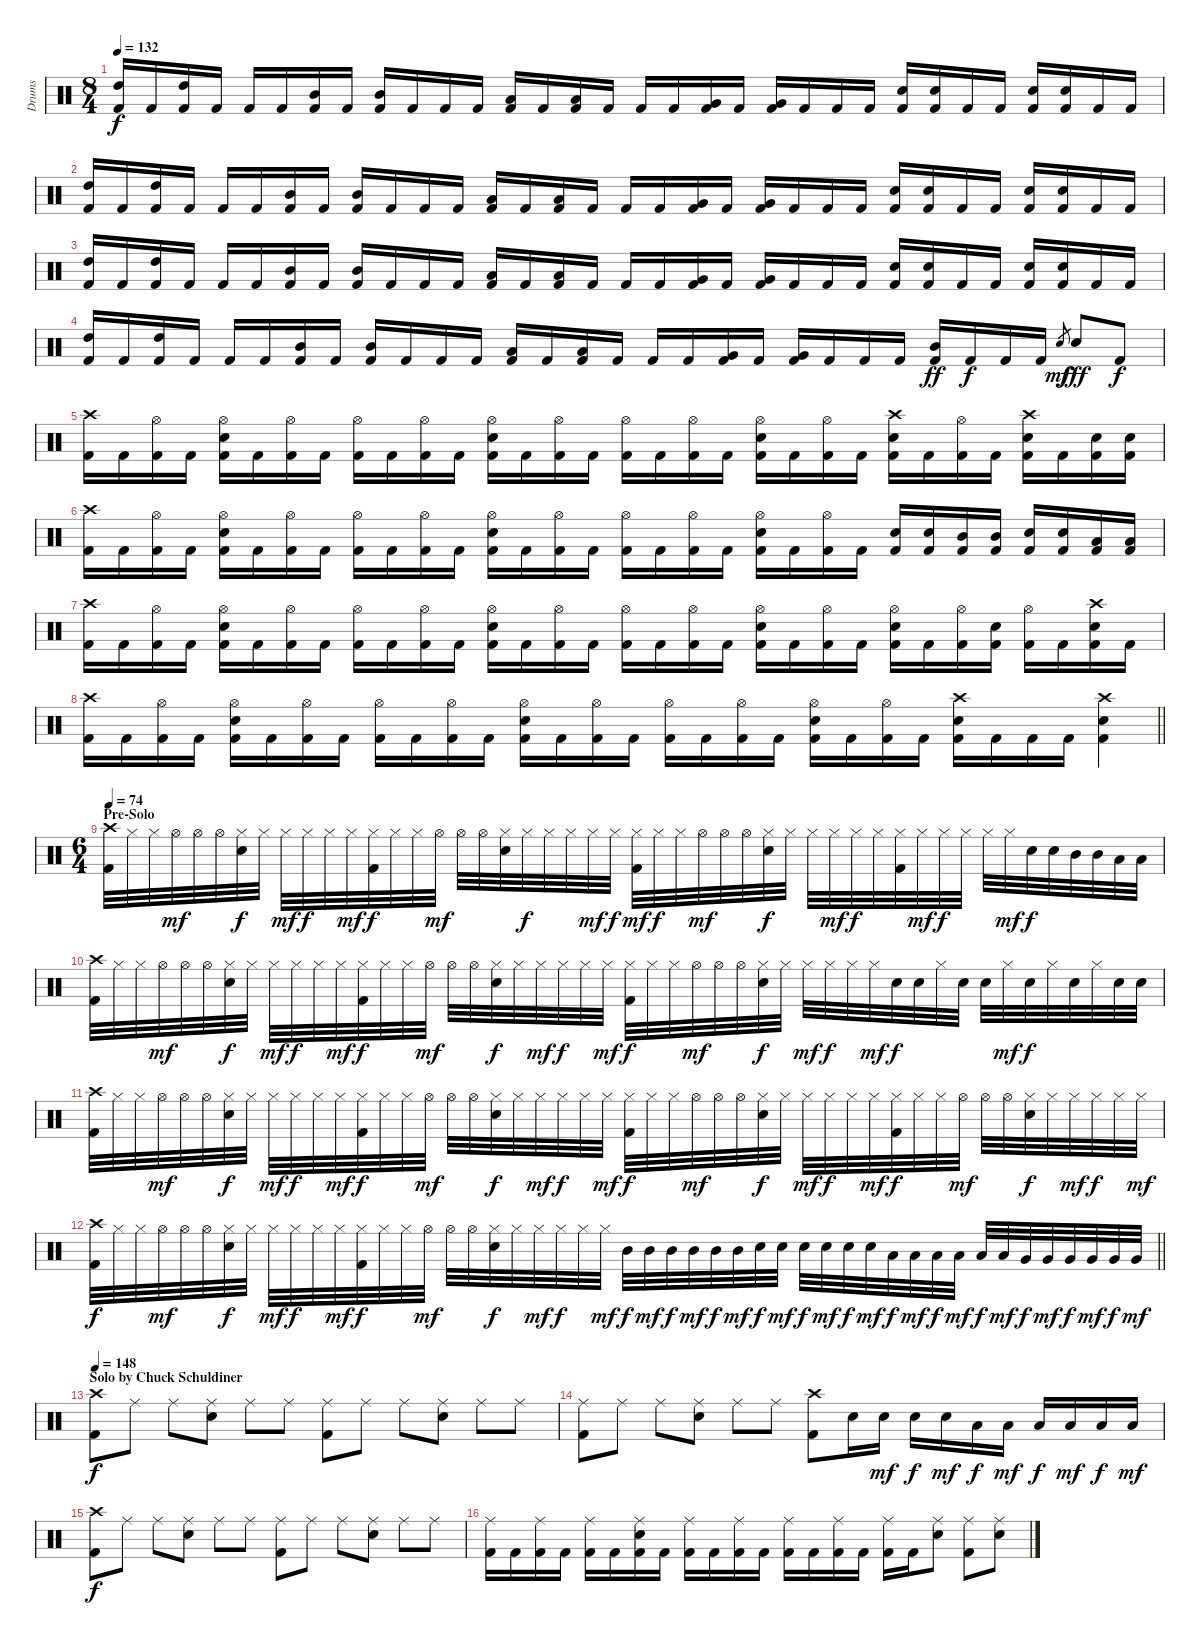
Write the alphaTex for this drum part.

\track ("Drums" "Drums") {instrument percussion}
\staff {score}
\articulation defaults
\ts (8 4)
\tempo 132
\clef neutral
\ks c
("High Tom (hit)" "Kick (hit) 2").16{dy f} "Kick (hit) 2".16 ("High Tom (hit)" "Kick (hit) 2").16 "Kick (hit) 2".16 "Kick (hit) 2".16 "Kick (hit) 2".16 ("Mid Tom (hit)" "Kick (hit) 2").16 "Kick (hit) 2".16 ("Mid Tom (hit)" "Kick (hit) 2").16 "Kick (hit) 2".16 "Kick (hit) 2".16 "Kick (hit) 2".16 ("Low Tom (hit)" "Kick (hit) 2").16 "Kick (hit) 2".16 ("Low Tom (hit)" "Kick (hit) 2").16 "Kick (hit) 2".16 "Kick (hit) 2".16 "Kick (hit) 2".16 ("Very Low Tom (hit)" "Kick (hit) 2").16 "Kick (hit) 2".16 ("Very Low Tom (hit)" "Kick (hit) 2").16 "Kick (hit) 2".16 "Kick (hit) 2".16 "Kick (hit) 2".16 ("Snare (hit) 2" "Kick (hit) 2").16 ("Snare (hit) 2" "Kick (hit) 2").16 "Kick (hit) 2".16 "Kick (hit) 2".16 ("Snare (hit) 2" "Kick (hit) 2").16 ("Snare (hit) 2" "Kick (hit) 2").16 "Kick (hit) 2".16 "Kick (hit) 2".16 |
("High Tom (hit)" "Kick (hit) 2").16 "Kick (hit) 2".16 ("High Tom (hit)" "Kick (hit) 2").16 "Kick (hit) 2".16 "Kick (hit) 2".16 "Kick (hit) 2".16 ("Mid Tom (hit)" "Kick (hit) 2").16 "Kick (hit) 2".16 ("Mid Tom (hit)" "Kick (hit) 2").16 "Kick (hit) 2".16 "Kick (hit) 2".16 "Kick (hit) 2".16 ("Low Tom (hit)" "Kick (hit) 2").16 "Kick (hit) 2".16 ("Low Tom (hit)" "Kick (hit) 2").16 "Kick (hit) 2".16 "Kick (hit) 2".16 "Kick (hit) 2".16 ("Very Low Tom (hit)" "Kick (hit) 2").16 "Kick (hit) 2".16 ("Very Low Tom (hit)" "Kick (hit) 2").16 "Kick (hit) 2".16 "Kick (hit) 2".16 "Kick (hit) 2".16 ("Snare (hit) 2" "Kick (hit) 2").16 ("Snare (hit) 2" "Kick (hit) 2").16 "Kick (hit) 2".16 "Kick (hit) 2".16 ("Snare (hit) 2" "Kick (hit) 2").16 ("Snare (hit) 2" "Kick (hit) 2").16 "Kick (hit) 2".16 "Kick (hit) 2".16 |
("High Tom (hit)" "Kick (hit) 2").16 "Kick (hit) 2".16 ("High Tom (hit)" "Kick (hit) 2").16 "Kick (hit) 2".16 "Kick (hit) 2".16 "Kick (hit) 2".16 ("Mid Tom (hit)" "Kick (hit) 2").16 "Kick (hit) 2".16 ("Mid Tom (hit)" "Kick (hit) 2").16 "Kick (hit) 2".16 "Kick (hit) 2".16 "Kick (hit) 2".16 ("Low Tom (hit)" "Kick (hit) 2").16 "Kick (hit) 2".16 ("Low Tom (hit)" "Kick (hit) 2").16 "Kick (hit) 2".16 "Kick (hit) 2".16 "Kick (hit) 2".16 ("Very Low Tom (hit)" "Kick (hit) 2").16 "Kick (hit) 2".16 ("Very Low Tom (hit)" "Kick (hit) 2").16 "Kick (hit) 2".16 "Kick (hit) 2".16 "Kick (hit) 2".16 ("Snare (hit) 2" "Kick (hit) 2").16 ("Snare (hit) 2" "Kick (hit) 2").16 "Kick (hit) 2".16 "Kick (hit) 2".16 ("Snare (hit) 2" "Kick (hit) 2").16 ("Snare (hit) 2" "Kick (hit) 2").16 "Kick (hit) 2".16 "Kick (hit) 2".16 |
("High Tom (hit)" "Kick (hit) 2").16 "Kick (hit) 2".16 ("High Tom (hit)" "Kick (hit) 2").16 "Kick (hit) 2".16 "Kick (hit) 2".16 "Kick (hit) 2".16 ("Mid Tom (hit)" "Kick (hit) 2").16 "Kick (hit) 2".16 ("Mid Tom (hit)" "Kick (hit) 2").16 "Kick (hit) 2".16 "Kick (hit) 2".16 "Kick (hit) 2".16 ("Low Tom (hit)" "Kick (hit) 2").16 "Kick (hit) 2".16 ("Low Tom (hit)" "Kick (hit) 2").16 "Kick (hit) 2".16 "Kick (hit) 2".16 "Kick (hit) 2".16 ("Very Low Tom (hit)" "Kick (hit) 2").16 "Kick (hit) 2".16 ("Very Low Tom (hit)" "Kick (hit) 2").16 "Kick (hit) 2".16 "Kick (hit) 2".16 "Kick (hit) 2".16 ("Mid Tom (hit)" "Kick (hit) 2").16{dy ff} "Kick (hit) 2".16{dy f} "Kick (hit) 2".16 "Kick (hit) 2".16 "Snare (hit) 2".8{gr dy mf} "Snare (hit) 2".8{dy fff} "Kick (hit) 2".8{dy f} |
("Crash high (hit)" "Kick (hit) 2").16 "Kick (hit) 2".16 ("Hi-Hat (open)" "Kick (hit) 2").16 "Kick (hit) 2".16 ("Hi-Hat (open)" "Snare (hit) 2" "Kick (hit) 2").16 "Kick (hit) 2".16 ("Hi-Hat (open)" "Kick (hit) 2").16 "Kick (hit) 2".16 ("Hi-Hat (open)" "Kick (hit) 2").16 "Kick (hit) 2".16 ("Hi-Hat (open)" "Kick (hit) 2").16 "Kick (hit) 2".16 ("Hi-Hat (open)" "Snare (hit) 2" "Kick (hit) 2").16 "Kick (hit) 2".16 ("Hi-Hat (open)" "Kick (hit) 2").16 "Kick (hit) 2".16 ("Hi-Hat (open)" "Kick (hit) 2").16 "Kick (hit) 2".16 ("Hi-Hat (open)" "Kick (hit) 2").16 "Kick (hit) 2".16 ("Hi-Hat (open)" "Snare (hit) 2" "Kick (hit) 2").16 "Kick (hit) 2".16 ("Hi-Hat (open)" "Kick (hit) 2").16 "Kick (hit) 2".16 ("Crash high (hit)" "Snare (hit) 2" "Kick (hit) 2").16 "Kick (hit) 2".16 ("Hi-Hat (open)" "Kick (hit) 2").16 "Kick (hit) 2".16 ("Crash high (hit)" "Snare (hit) 2" "Kick (hit) 2").16 "Kick (hit) 2".16 ("Snare (hit) 2" "Kick (hit) 2").16 ("Snare (hit) 2" "Kick (hit) 2").16 |
("Crash high (hit)" "Kick (hit) 2").16 "Kick (hit) 2".16 ("Hi-Hat (open)" "Kick (hit) 2").16 "Kick (hit) 2".16 ("Hi-Hat (open)" "Snare (hit) 2" "Kick (hit) 2").16 "Kick (hit) 2".16 ("Hi-Hat (open)" "Kick (hit) 2").16 "Kick (hit) 2".16 ("Hi-Hat (open)" "Kick (hit) 2").16 "Kick (hit) 2".16 ("Hi-Hat (open)" "Kick (hit) 2").16 "Kick (hit) 2".16 ("Hi-Hat (open)" "Snare (hit) 2" "Kick (hit) 2").16 "Kick (hit) 2".16 ("Hi-Hat (open)" "Kick (hit) 2").16 "Kick (hit) 2".16 ("Hi-Hat (open)" "Kick (hit) 2").16 "Kick (hit) 2".16 ("Hi-Hat (open)" "Kick (hit) 2").16 "Kick (hit) 2".16 ("Hi-Hat (open)" "Snare (hit) 2" "Kick (hit) 2").16 "Kick (hit) 2".16 ("Hi-Hat (open)" "Kick (hit) 2").16 "Kick (hit) 2".16 ("Snare (hit) 2" "Kick (hit) 2").16 ("Snare (hit) 2" "Kick (hit) 2").16 ("Mid Tom (hit)" "Kick (hit) 2").16 ("Mid Tom (hit)" "Kick (hit) 2").16 ("Snare (hit) 2" "Kick (hit) 2").16 ("Snare (hit) 2" "Kick (hit) 2").16 ("Low Tom (hit)" "Kick (hit) 2").16 ("Low Tom (hit)" "Kick (hit) 2").16 |
("Crash high (hit)" "Kick (hit) 2").16 "Kick (hit) 2".16 ("Hi-Hat (open)" "Kick (hit) 2").16 "Kick (hit) 2".16 ("Hi-Hat (open)" "Snare (hit) 2" "Kick (hit) 2").16 "Kick (hit) 2".16 ("Hi-Hat (open)" "Kick (hit) 2").16 "Kick (hit) 2".16 ("Hi-Hat (open)" "Kick (hit) 2").16 "Kick (hit) 2".16 ("Hi-Hat (open)" "Kick (hit) 2").16 "Kick (hit) 2".16 ("Hi-Hat (open)" "Snare (hit) 2" "Kick (hit) 2").16 "Kick (hit) 2".16 ("Hi-Hat (open)" "Kick (hit) 2").16 "Kick (hit) 2".16 ("Hi-Hat (open)" "Kick (hit) 2").16 "Kick (hit) 2".16 ("Hi-Hat (open)" "Kick (hit) 2").16 "Kick (hit) 2".16 ("Hi-Hat (open)" "Snare (hit) 2" "Kick (hit) 2").16 "Kick (hit) 2".16 ("Hi-Hat (open)" "Kick (hit) 2").16 "Kick (hit) 2".16 ("Hi-Hat (open)" "Snare (hit) 2" "Kick (hit) 2").16 "Kick (hit) 2".16 ("Hi-Hat (open)" "Kick (hit) 2").16 ("Snare (hit) 2" "Kick (hit) 2").16 ("Hi-Hat (open)" "Kick (hit) 2").16 "Kick (hit) 2".16 ("Crash high (hit)" "Snare (hit) 2" "Kick (hit) 2").16 "Kick (hit) 2".16 |
\barLineRight lightlight
("Crash high (hit)" "Kick (hit) 2").16 "Kick (hit) 2".16 ("Hi-Hat (open)" "Kick (hit) 2").16 "Kick (hit) 2".16 ("Hi-Hat (open)" "Snare (hit) 2" "Kick (hit) 2").16 "Kick (hit) 2".16 ("Hi-Hat (open)" "Kick (hit) 2").16 "Kick (hit) 2".16 ("Hi-Hat (open)" "Kick (hit) 2").16 "Kick (hit) 2".16 ("Hi-Hat (open)" "Kick (hit) 2").16 "Kick (hit) 2".16 ("Hi-Hat (open)" "Snare (hit) 2" "Kick (hit) 2").16 "Kick (hit) 2".16 ("Hi-Hat (open)" "Kick (hit) 2").16 "Kick (hit) 2".16 ("Hi-Hat (open)" "Kick (hit) 2").16 "Kick (hit) 2".16 ("Hi-Hat (open)" "Kick (hit) 2").16 "Kick (hit) 2".16 ("Hi-Hat (open)" "Snare (hit) 2" "Kick (hit) 2").16 "Kick (hit) 2".16 ("Hi-Hat (open)" "Kick (hit) 2").16 "Kick (hit) 2".16 ("Crash high (hit)" "Snare (hit) 2" "Kick (hit) 2").16 "Kick (hit) 2".16 "Kick (hit) 2".16 "Kick (hit) 2".16 ("Crash high (hit)" "Snare (hit) 2" "Kick (hit) 2").4 |
\ts (6 4)
\section ("" "Pre-Solo")
\tempo 74
("Crash high (hit)" "Kick (hit) 2").32 "Hi-Hat (closed)".32 "Hi-Hat (closed)".32 "Hi-Hat (open)".32{dy mf} "Hi-Hat (open)".32 "Hi-Hat (open)".32 ("Hi-Hat (closed)" "Snare (hit) 2").32{dy f} "Hi-Hat (closed)".32 "Hi-Hat (closed)".32{dy mf} "Hi-Hat (closed)".32{dy f} "Hi-Hat (closed)".32 "Hi-Hat (closed)".32{dy mf} ("Hi-Hat (closed)" "Kick (hit) 2").32{dy f} "Hi-Hat (closed)".32 "Hi-Hat (closed)".32 "Hi-Hat (open)".32{dy mf} "Hi-Hat (open)".32 "Hi-Hat (open)".32 ("Hi-Hat (closed)" "Snare (hit) 2").32 "Hi-Hat (closed)".32{dy f} "Hi-Hat (closed)".32 "Hi-Hat (closed)".32 "Hi-Hat (closed)".32{dy mf} "Hi-Hat (closed)".32{dy f} ("Hi-Hat (closed)" "Kick (hit) 2").32{dy mf} "Hi-Hat (closed)".32{dy f} "Hi-Hat (closed)".32 "Hi-Hat (open)".32{dy mf} "Hi-Hat (open)".32 "Hi-Hat (open)".32 ("Hi-Hat (closed)" "Snare (hit) 2").32{dy f} "Hi-Hat (closed)".32 "Hi-Hat (closed)".32 "Hi-Hat (closed)".32{dy mf} "Hi-Hat (closed)".32{dy f} "Hi-Hat (closed)".32 ("Hi-Hat (closed)" "Kick (hit) 2").32 "Hi-Hat (closed)".32{dy mf} "Hi-Hat (closed)".32{dy f} "Hi-Hat (closed)".32 "Hi-Hat (closed)".32 "Hi-Hat (closed)".32{dy mf} "Snare (hit) 2".32{dy f} "Snare (hit) 2".32 "Mid Tom (hit)".32 "Mid Tom (hit)".32 "Low Tom (hit)".32 "Low Tom (hit)".32 |
("Crash high (hit)" "Kick (hit) 2").32 "Hi-Hat (closed)".32 "Hi-Hat (closed)".32 "Hi-Hat (open)".32{dy mf} "Hi-Hat (open)".32 "Hi-Hat (open)".32 ("Hi-Hat (closed)" "Snare (hit) 2").32{dy f} "Hi-Hat (closed)".32 "Hi-Hat (closed)".32{dy mf} "Hi-Hat (closed)".32{dy f} "Hi-Hat (closed)".32 "Hi-Hat (closed)".32{dy mf} ("Hi-Hat (closed)" "Kick (hit) 2").32{dy f} "Hi-Hat (closed)".32 "Hi-Hat (closed)".32 "Hi-Hat (open)".32{dy mf} "Hi-Hat (open)".32 "Hi-Hat (open)".32 ("Hi-Hat (closed)" "Snare (hit) 2").32{dy f} "Hi-Hat (closed)".32 "Hi-Hat (closed)".32{dy mf} "Hi-Hat (closed)".32{dy f} "Hi-Hat (closed)".32 "Hi-Hat (closed)".32{dy mf} ("Hi-Hat (closed)" "Kick (hit) 2").32{dy f} "Hi-Hat (closed)".32 "Hi-Hat (closed)".32 "Hi-Hat (open)".32{dy mf} "Hi-Hat (open)".32 "Hi-Hat (open)".32 ("Hi-Hat (closed)" "Snare (hit) 2").32{dy f} "Hi-Hat (closed)".32 "Hi-Hat (closed)".32{dy mf} "Hi-Hat (closed)".32{dy f} "Hi-Hat (closed)".32 "Hi-Hat (closed)".32{dy mf} "Snare (hit) 2".32{dy f} "Snare (hit) 2".32 "Hi-Hat (closed)".32 "Snare (hit) 2".32 "Snare (hit) 2".32 "Hi-Hat (closed)".32{dy mf} "Snare (hit) 2".32{dy f} "Hi-Hat (closed)".32 "Snare (hit) 2".32 "Hi-Hat (closed)".32 "Snare (hit) 2".32 "Snare (hit) 2".32 |
("Crash high (hit)" "Kick (hit) 2").32 "Hi-Hat (closed)".32 "Hi-Hat (closed)".32 "Hi-Hat (open)".32{dy mf} "Hi-Hat (open)".32 "Hi-Hat (open)".32 ("Hi-Hat (closed)" "Snare (hit) 2").32{dy f} "Hi-Hat (closed)".32 "Hi-Hat (closed)".32{dy mf} "Hi-Hat (closed)".32{dy f} "Hi-Hat (closed)".32 "Hi-Hat (closed)".32{dy mf} ("Hi-Hat (closed)" "Kick (hit) 2").32{dy f} "Hi-Hat (closed)".32 "Hi-Hat (closed)".32 "Hi-Hat (open)".32{dy mf} "Hi-Hat (open)".32 "Hi-Hat (open)".32 ("Hi-Hat (closed)" "Snare (hit) 2").32{dy f} "Hi-Hat (closed)".32 "Hi-Hat (closed)".32{dy mf} "Hi-Hat (closed)".32{dy f} "Hi-Hat (closed)".32 "Hi-Hat (closed)".32{dy mf} ("Hi-Hat (closed)" "Kick (hit) 2").32{dy f} "Hi-Hat (closed)".32 "Hi-Hat (closed)".32 "Hi-Hat (open)".32{dy mf} "Hi-Hat (open)".32 "Hi-Hat (open)".32 ("Hi-Hat (closed)" "Snare (hit) 2").32{dy f} "Hi-Hat (closed)".32 "Hi-Hat (closed)".32{dy mf} "Hi-Hat (closed)".32{dy f} "Hi-Hat (closed)".32 "Hi-Hat (closed)".32{dy mf} ("Hi-Hat (closed)" "Kick (hit) 2").32{dy f} "Hi-Hat (closed)".32 "Hi-Hat (closed)".32 "Hi-Hat (open)".32{dy mf} "Hi-Hat (open)".32 "Hi-Hat (open)".32 ("Hi-Hat (closed)" "Snare (hit) 2").32{dy f} "Hi-Hat (closed)".32 "Hi-Hat (closed)".32{dy mf} "Hi-Hat (closed)".32{dy f} "Hi-Hat (closed)".32 "Hi-Hat (closed)".32{dy mf} |
\barLineRight lightlight
("Crash high (hit)" "Kick (hit) 2").32{dy f} "Hi-Hat (closed)".32 "Hi-Hat (closed)".32 "Hi-Hat (open)".32{dy mf} "Hi-Hat (open)".32 "Hi-Hat (open)".32 ("Hi-Hat (closed)" "Snare (hit) 2").32{dy f} "Hi-Hat (closed)".32 "Hi-Hat (closed)".32{dy mf} "Hi-Hat (closed)".32{dy f} "Hi-Hat (closed)".32 "Hi-Hat (closed)".32{dy mf} ("Hi-Hat (closed)" "Kick (hit) 2").32{dy f} "Hi-Hat (closed)".32 "Hi-Hat (closed)".32 "Hi-Hat (open)".32{dy mf} "Hi-Hat (open)".32 "Hi-Hat (open)".32 ("Hi-Hat (closed)" "Snare (hit) 2").32{dy f} "Hi-Hat (closed)".32 "Hi-Hat (closed)".32{dy mf} "Hi-Hat (closed)".32{dy f} "Hi-Hat (closed)".32 "Hi-Hat (closed)".32{dy mf} "Mid Tom (hit)".32{dy f} "Mid Tom (hit)".32{dy mf} "Mid Tom (hit)".32{dy f} "Mid Tom (hit)".32{dy mf} "Mid Tom (hit)".32{dy f} "Mid Tom (hit)".32{dy mf} "Snare (hit) 2".32{dy f} "Snare (hit) 2".32{dy mf} "Snare (hit) 2".32{dy f} "Snare (hit) 2".32{dy mf} "Snare (hit) 2".32{dy f} "Snare (hit) 2".32{dy mf} "Low Tom (hit)".32{dy f} "Low Tom (hit)".32{dy mf} "Low Tom (hit)".32{dy f} "Low Tom (hit)".32{dy mf} "Low Tom (hit)".32{dy f} "Low Tom (hit)".32{dy mf} "Very Low Tom (hit)".32{dy f} "Very Low Tom (hit)".32{dy mf} "Very Low Tom (hit)".32{dy f} "Very Low Tom (hit)".32{dy mf} "Very Low Tom (hit)".32{dy f} "Very Low Tom (hit)".32{dy mf} |
\section ("" "Solo by Chuck Schuldiner")
\tempo 148
("Crash high (hit)" "Kick (hit) 2").8{dy f} "Ride (middle)".8 "Ride (middle)".8 ("Ride (middle)" "Snare (hit) 2").8 "Ride (middle)".8 "Ride (middle)".8 ("Ride (middle)" "Kick (hit) 2").8 "Ride (middle)".8 "Ride (middle)".8 ("Ride (middle)" "Snare (hit) 2").8 "Ride (middle)".8 "Ride (middle)".8 |
("Ride (middle)" "Kick (hit) 2").8 "Ride (middle)".8 "Ride (middle)".8 ("Ride (middle)" "Snare (hit) 2").8 "Ride (middle)".8 "Ride (middle)".8 ("Crash high (hit)" "Kick (hit) 2").8 "Snare (hit) 2".16 "Snare (hit) 2".16{dy mf} "Snare (hit) 2".16{dy f} "Snare (hit) 2".16{dy mf} "Low Tom (hit)".16{dy f} "Low Tom (hit)".16{dy mf} "Low Tom (hit)".16{dy f} "Low Tom (hit)".16{dy mf} "Low Tom (hit)".16{dy f} "Low Tom (hit)".16{dy mf} |
("Crash high (hit)" "Kick (hit) 2").8{dy f} "Ride (middle)".8 "Ride (middle)".8 ("Ride (middle)" "Snare (hit) 2").8 "Ride (middle)".8 "Ride (middle)".8 ("Ride (middle)" "Kick (hit) 2").8 "Ride (middle)".8 "Ride (middle)".8 ("Ride (middle)" "Snare (hit) 2").8 "Ride (middle)".8 "Ride (middle)".8 |
("Ride (middle)" "Kick (hit) 2").16 "Kick (hit) 2".16 ("Ride (middle)" "Kick (hit) 2").16 "Kick (hit) 2".16 ("Ride (middle)" "Kick (hit) 2").16 "Kick (hit) 2".16 ("Ride (middle)" "Snare (hit) 2" "Kick (hit) 2").16 "Kick (hit) 2".16 ("Ride (middle)" "Kick (hit) 2").16 "Kick (hit) 2".16 ("Ride (middle)" "Kick (hit) 2").16 "Kick (hit) 2".16 ("Ride (middle)" "Kick (hit) 2").16 "Kick (hit) 2".16 ("Ride (middle)" "Kick (hit) 2").16 "Kick (hit) 2".16 ("Ride (middle)" "Kick (hit) 2").16 "Kick (hit) 2".16 ("Ride (middle)" "Snare (hit) 2").8 ("Ride (middle)" "Kick (hit) 2").8 ("Ride (middle)" "Snare (hit) 2").8
